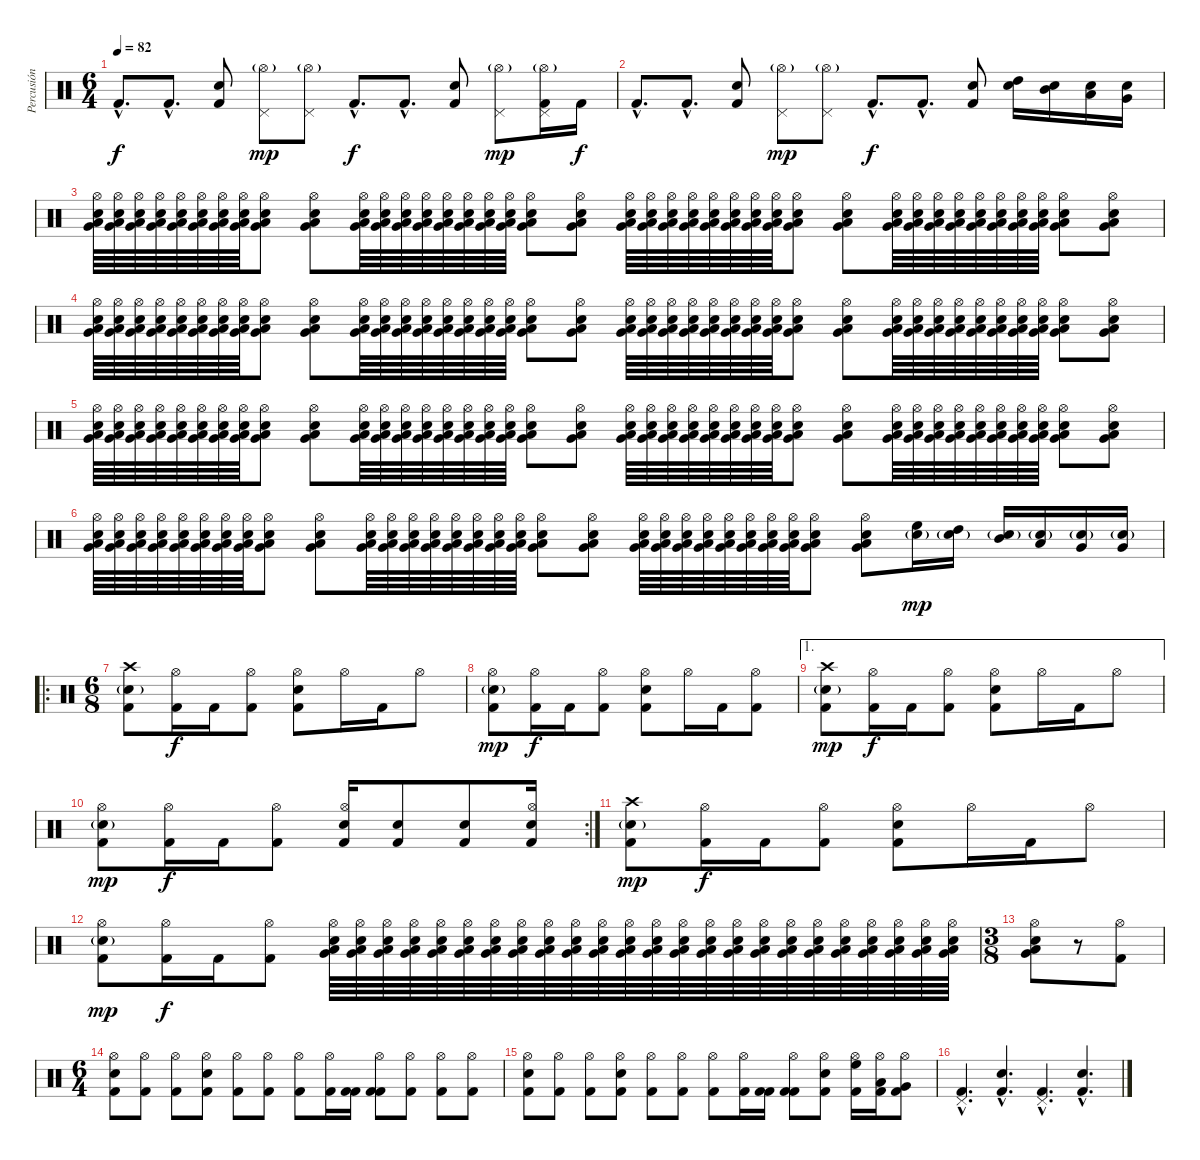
\track ("Percusión" "Percusión") {instrument percussion}
\staff {score}
\articulation defaults
\ts (6 4)
\tempo 82
\clef neutral
\ks c "Kick (hit) 2"{hac}.8{d dy f} "Kick (hit) 2"{hac}.8{d}
("Electric Snare (hit)" "Kick (hit) 2").8 ("Pedal Hi-Hat (hit)" "Hi-Hat (open)"{g}).8{dy mp} ("Pedal Hi-Hat (hit)" "Hi-Hat (open)"{g}).8 "Kick (hit) 2"{hac}.8{d dy f} "Kick (hit) 2"{hac}.8{d} ("Electric Snare (hit)" "Kick (hit) 2").8 ("Pedal Hi-Hat (hit)" "Hi-Hat (open)"{g}).8{dy mp} ("Pedal Hi-Hat (hit)" "Hi-Hat (open)"{g} "Kick (hit) 2").16 "Kick (hit) 2".16{dy f} |
"Kick (hit) 2"{hac}.8{d} "Kick (hit) 2"{hac}.8{d} ("Electric Snare (hit)" "Kick (hit) 2").8 ("Pedal Hi-Hat (hit)" "Hi-Hat (open)"{g}).8{dy mp} ("Pedal Hi-Hat (hit)" "Hi-Hat (open)"{g}).8 "Kick (hit) 2"{hac}.8{d dy f} "Kick (hit) 2"{hac}.8{d} ("Electric Snare (hit)" "Kick (hit) 2").8 ("High Tom (hit)" "Electric Snare (hit)").16 ("Mid Tom (hit)" "Electric Snare (hit)").16 ("Low Tom (hit)" "Electric Snare (hit)").16 ("Very Low Tom (hit)" "Electric Snare (hit)").16 |
("Low Tom (hit)" "Very Low Tom (hit)" "Snare (hit) 2" "Hi-Hat (open)").64{volume 8} ("Low Tom (hit)" "Very Low Tom (hit)" "Snare (hit) 2" "Hi-Hat (open)").64 ("Low Tom (hit)" "Very Low Tom (hit)" "Snare (hit) 2" "Hi-Hat (open)").64 ("Low Tom (hit)" "Very Low Tom (hit)" "Snare (hit) 2" "Hi-Hat (open)").64 ("Low Tom (hit)" "Very Low Tom (hit)" "Snare (hit) 2" "Hi-Hat (open)").64 ("Low Tom (hit)" "Very Low Tom (hit)" "Snare (hit) 2" "Hi-Hat (open)").64 ("Low Tom (hit)" "Very Low Tom (hit)" "Snare (hit) 2" "Hi-Hat (open)").64 ("Low Tom (hit)" "Very Low Tom (hit)" "Snare (hit) 2" "Hi-Hat (open)").64 ("Low Tom (hit)" "Very Low Tom (hit)" "Snare (hit) 2" "Hi-Hat (open)").8 ("Low Tom (hit)" "Very Low Tom (hit)" "Snare (hit) 2" "Hi-Hat (open)").8 ("Low Tom (hit)" "Very Low Tom (hit)" "Snare (hit) 2" "Hi-Hat (open)").64 ("Low Tom (hit)" "Very Low Tom (hit)" "Snare (hit) 2" "Hi-Hat (open)").64 ("Low Tom (hit)" "Very Low Tom (hit)" "Snare (hit) 2" "Hi-Hat (open)").64 ("Low Tom (hit)" "Very Low Tom (hit)" "Snare (hit) 2" "Hi-Hat (open)").64 ("Low Tom (hit)" "Very Low Tom (hit)" "Snare (hit) 2" "Hi-Hat (open)").64 ("Low Tom (hit)" "Very Low Tom (hit)" "Snare (hit) 2" "Hi-Hat (open)").64 ("Low Tom (hit)" "Very Low Tom (hit)" "Snare (hit) 2" "Hi-Hat (open)").64 ("Low Tom (hit)" "Very Low Tom (hit)" "Snare (hit) 2" "Hi-Hat (open)").64 ("Low Tom (hit)" "Very Low Tom (hit)" "Snare (hit) 2" "Hi-Hat (open)").8 ("Low Tom (hit)" "Very Low Tom (hit)" "Snare (hit) 2" "Hi-Hat (open)").8 ("Low Tom (hit)" "Very Low Tom (hit)" "Snare (hit) 2" "Hi-Hat (open)").64 ("Low Tom (hit)" "Very Low Tom (hit)" "Snare (hit) 2" "Hi-Hat (open)").64 ("Low Tom (hit)" "Very Low Tom (hit)" "Snare (hit) 2" "Hi-Hat (open)").64 ("Low Tom (hit)" "Very Low Tom (hit)" "Snare (hit) 2" "Hi-Hat (open)").64 ("Low Tom (hit)" "Very Low Tom (hit)" "Snare (hit) 2" "Hi-Hat (open)").64 ("Low Tom (hit)" "Very Low Tom (hit)" "Snare (hit) 2" "Hi-Hat (open)").64 ("Low Tom (hit)" "Very Low Tom (hit)" "Snare (hit) 2" "Hi-Hat (open)").64 ("Low Tom (hit)" "Very Low Tom (hit)" "Snare (hit) 2" "Hi-Hat (open)").64 ("Low Tom (hit)" "Very Low Tom (hit)" "Snare (hit) 2" "Hi-Hat (open)").8 ("Low Tom (hit)" "Very Low Tom (hit)" "Snare (hit) 2" "Hi-Hat (open)").8 ("Low Tom (hit)" "Very Low Tom (hit)" "Snare (hit) 2" "Hi-Hat (open)").64 ("Low Tom (hit)" "Very Low Tom (hit)" "Snare (hit) 2" "Hi-Hat (open)").64 ("Low Tom (hit)" "Very Low Tom (hit)" "Snare (hit) 2" "Hi-Hat (open)").64 ("Low Tom (hit)" "Very Low Tom (hit)" "Snare (hit) 2" "Hi-Hat (open)").64 ("Low Tom (hit)" "Very Low Tom (hit)" "Snare (hit) 2" "Hi-Hat (open)").64 ("Low Tom (hit)" "Very Low Tom (hit)" "Snare (hit) 2" "Hi-Hat (open)").64 ("Low Tom (hit)" "Very Low Tom (hit)" "Snare (hit) 2" "Hi-Hat (open)").64 ("Low Tom (hit)" "Very Low Tom (hit)" "Snare (hit) 2" "Hi-Hat (open)").64 ("Low Tom (hit)" "Very Low Tom (hit)" "Snare (hit) 2" "Hi-Hat (open)").8 ("Low Tom (hit)" "Very Low Tom (hit)" "Snare (hit) 2" "Hi-Hat (open)").8 |
("Low Tom (hit)" "Very Low Tom (hit)" "Snare (hit) 2" "Hi-Hat (open)").64 ("Low Tom (hit)" "Very Low Tom (hit)" "Snare (hit) 2" "Hi-Hat (open)").64 ("Low Tom (hit)" "Very Low Tom (hit)" "Snare (hit) 2" "Hi-Hat (open)").64 ("Low Tom (hit)" "Very Low Tom (hit)" "Snare (hit) 2" "Hi-Hat (open)").64 ("Low Tom (hit)" "Very Low Tom (hit)" "Snare (hit) 2" "Hi-Hat (open)").64 ("Low Tom (hit)" "Very Low Tom (hit)" "Snare (hit) 2" "Hi-Hat (open)").64 ("Low Tom (hit)" "Very Low Tom (hit)" "Snare (hit) 2" "Hi-Hat (open)").64 ("Low Tom (hit)" "Very Low Tom (hit)" "Snare (hit) 2" "Hi-Hat (open)").64 ("Low Tom (hit)" "Very Low Tom (hit)" "Snare (hit) 2" "Hi-Hat (open)").8 ("Low Tom (hit)" "Very Low Tom (hit)" "Snare (hit) 2" "Hi-Hat (open)").8 ("Low Tom (hit)" "Very Low Tom (hit)" "Snare (hit) 2" "Hi-Hat (open)").64 ("Low Tom (hit)" "Very Low Tom (hit)" "Snare (hit) 2" "Hi-Hat (open)").64 ("Low Tom (hit)" "Very Low Tom (hit)" "Snare (hit) 2" "Hi-Hat (open)").64 ("Low Tom (hit)" "Very Low Tom (hit)" "Snare (hit) 2" "Hi-Hat (open)").64 ("Low Tom (hit)" "Very Low Tom (hit)" "Snare (hit) 2" "Hi-Hat (open)").64 ("Low Tom (hit)" "Very Low Tom (hit)" "Snare (hit) 2" "Hi-Hat (open)").64 ("Low Tom (hit)" "Very Low Tom (hit)" "Snare (hit) 2" "Hi-Hat (open)").64 ("Low Tom (hit)" "Very Low Tom (hit)" "Snare (hit) 2" "Hi-Hat (open)").64 ("Low Tom (hit)" "Very Low Tom (hit)" "Snare (hit) 2" "Hi-Hat (open)").8 ("Low Tom (hit)" "Very Low Tom (hit)" "Snare (hit) 2" "Hi-Hat (open)").8 ("Low Tom (hit)" "Very Low Tom (hit)" "Snare (hit) 2" "Hi-Hat (open)").64 ("Low Tom (hit)" "Very Low Tom (hit)" "Snare (hit) 2" "Hi-Hat (open)").64 ("Low Tom (hit)" "Very Low Tom (hit)" "Snare (hit) 2" "Hi-Hat (open)").64 ("Low Tom (hit)" "Very Low Tom (hit)" "Snare (hit) 2" "Hi-Hat (open)").64 ("Low Tom (hit)" "Very Low Tom (hit)" "Snare (hit) 2" "Hi-Hat (open)").64 ("Low Tom (hit)" "Very Low Tom (hit)" "Snare (hit) 2" "Hi-Hat (open)").64 ("Low Tom (hit)" "Very Low Tom (hit)" "Snare (hit) 2" "Hi-Hat (open)").64 ("Low Tom (hit)" "Very Low Tom (hit)" "Snare (hit) 2" "Hi-Hat (open)").64 ("Low Tom (hit)" "Very Low Tom (hit)" "Snare (hit) 2" "Hi-Hat (open)").8 ("Low Tom (hit)" "Very Low Tom (hit)" "Snare (hit) 2" "Hi-Hat (open)").8 ("Low Tom (hit)" "Very Low Tom (hit)" "Snare (hit) 2" "Hi-Hat (open)").64 ("Low Tom (hit)" "Very Low Tom (hit)" "Snare (hit) 2" "Hi-Hat (open)").64 ("Low Tom (hit)" "Very Low Tom (hit)" "Snare (hit) 2" "Hi-Hat (open)").64 ("Low Tom (hit)" "Very Low Tom (hit)" "Snare (hit) 2" "Hi-Hat (open)").64 ("Low Tom (hit)" "Very Low Tom (hit)" "Snare (hit) 2" "Hi-Hat (open)").64 ("Low Tom (hit)" "Very Low Tom (hit)" "Snare (hit) 2" "Hi-Hat (open)").64 ("Low Tom (hit)" "Very Low Tom (hit)" "Snare (hit) 2" "Hi-Hat (open)").64 ("Low Tom (hit)" "Very Low Tom (hit)" "Snare (hit) 2" "Hi-Hat (open)").64 ("Low Tom (hit)" "Very Low Tom (hit)" "Snare (hit) 2" "Hi-Hat (open)").8 ("Low Tom (hit)" "Very Low Tom (hit)" "Snare (hit) 2" "Hi-Hat (open)").8 |
("Low Tom (hit)" "Very Low Tom (hit)" "Snare (hit) 2" "Hi-Hat (open)").64 ("Low Tom (hit)" "Very Low Tom (hit)" "Snare (hit) 2" "Hi-Hat (open)").64 ("Low Tom (hit)" "Very Low Tom (hit)" "Snare (hit) 2" "Hi-Hat (open)").64 ("Low Tom (hit)" "Very Low Tom (hit)" "Snare (hit) 2" "Hi-Hat (open)").64 ("Low Tom (hit)" "Very Low Tom (hit)" "Snare (hit) 2" "Hi-Hat (open)").64 ("Low Tom (hit)" "Very Low Tom (hit)" "Snare (hit) 2" "Hi-Hat (open)").64 ("Low Tom (hit)" "Very Low Tom (hit)" "Snare (hit) 2" "Hi-Hat (open)").64 ("Low Tom (hit)" "Very Low Tom (hit)" "Snare (hit) 2" "Hi-Hat (open)").64 ("Low Tom (hit)" "Very Low Tom (hit)" "Snare (hit) 2" "Hi-Hat (open)").8 ("Low Tom (hit)" "Very Low Tom (hit)" "Snare (hit) 2" "Hi-Hat (open)").8 ("Low Tom (hit)" "Very Low Tom (hit)" "Snare (hit) 2" "Hi-Hat (open)").64 ("Low Tom (hit)" "Very Low Tom (hit)" "Snare (hit) 2" "Hi-Hat (open)").64 ("Low Tom (hit)" "Very Low Tom (hit)" "Snare (hit) 2" "Hi-Hat (open)").64 ("Low Tom (hit)" "Very Low Tom (hit)" "Snare (hit) 2" "Hi-Hat (open)").64 ("Low Tom (hit)" "Very Low Tom (hit)" "Snare (hit) 2" "Hi-Hat (open)").64 ("Low Tom (hit)" "Very Low Tom (hit)" "Snare (hit) 2" "Hi-Hat (open)").64 ("Low Tom (hit)" "Very Low Tom (hit)" "Snare (hit) 2" "Hi-Hat (open)").64 ("Low Tom (hit)" "Very Low Tom (hit)" "Snare (hit) 2" "Hi-Hat (open)").64 ("Low Tom (hit)" "Very Low Tom (hit)" "Snare (hit) 2" "Hi-Hat (open)").8 ("Low Tom (hit)" "Very Low Tom (hit)" "Snare (hit) 2" "Hi-Hat (open)").8 ("Low Tom (hit)" "Very Low Tom (hit)" "Snare (hit) 2" "Hi-Hat (open)").64 ("Low Tom (hit)" "Very Low Tom (hit)" "Snare (hit) 2" "Hi-Hat (open)").64 ("Low Tom (hit)" "Very Low Tom (hit)" "Snare (hit) 2" "Hi-Hat (open)").64 ("Low Tom (hit)" "Very Low Tom (hit)" "Snare (hit) 2" "Hi-Hat (open)").64 ("Low Tom (hit)" "Very Low Tom (hit)" "Snare (hit) 2" "Hi-Hat (open)").64 ("Low Tom (hit)" "Very Low Tom (hit)" "Snare (hit) 2" "Hi-Hat (open)").64 ("Low Tom (hit)" "Very Low Tom (hit)" "Snare (hit) 2" "Hi-Hat (open)").64 ("Low Tom (hit)" "Very Low Tom (hit)" "Snare (hit) 2" "Hi-Hat (open)").64 ("Low Tom (hit)" "Very Low Tom (hit)" "Snare (hit) 2" "Hi-Hat (open)").8 ("Low Tom (hit)" "Very Low Tom (hit)" "Snare (hit) 2" "Hi-Hat (open)").8 ("Low Tom (hit)" "Very Low Tom (hit)" "Snare (hit) 2" "Hi-Hat (open)").64 ("Low Tom (hit)" "Very Low Tom (hit)" "Snare (hit) 2" "Hi-Hat (open)").64 ("Low Tom (hit)" "Very Low Tom (hit)" "Snare (hit) 2" "Hi-Hat (open)").64 ("Low Tom (hit)" "Very Low Tom (hit)" "Snare (hit) 2" "Hi-Hat (open)").64 ("Low Tom (hit)" "Very Low Tom (hit)" "Snare (hit) 2" "Hi-Hat (open)").64 ("Low Tom (hit)" "Very Low Tom (hit)" "Snare (hit) 2" "Hi-Hat (open)").64 ("Low Tom (hit)" "Very Low Tom (hit)" "Snare (hit) 2" "Hi-Hat (open)").64 ("Low Tom (hit)" "Very Low Tom (hit)" "Snare (hit) 2" "Hi-Hat (open)").64 ("Low Tom (hit)" "Very Low Tom (hit)" "Snare (hit) 2" "Hi-Hat (open)").8 ("Low Tom (hit)" "Very Low Tom (hit)" "Snare (hit) 2" "Hi-Hat (open)").8 |
("Low Tom (hit)" "Very Low Tom (hit)" "Snare (hit) 2" "Hi-Hat (open)").64 ("Low Tom (hit)" "Very Low Tom (hit)" "Snare (hit) 2" "Hi-Hat (open)").64 ("Low Tom (hit)" "Very Low Tom (hit)" "Snare (hit) 2" "Hi-Hat (open)").64 ("Low Tom (hit)" "Very Low Tom (hit)" "Snare (hit) 2" "Hi-Hat (open)").64 ("Low Tom (hit)" "Very Low Tom (hit)" "Snare (hit) 2" "Hi-Hat (open)").64 ("Low Tom (hit)" "Very Low Tom (hit)" "Snare (hit) 2" "Hi-Hat (open)").64 ("Low Tom (hit)" "Very Low Tom (hit)" "Snare (hit) 2" "Hi-Hat (open)").64 ("Low Tom (hit)" "Very Low Tom (hit)" "Snare (hit) 2" "Hi-Hat (open)").64 ("Low Tom (hit)" "Very Low Tom (hit)" "Snare (hit) 2" "Hi-Hat (open)").8 ("Low Tom (hit)" "Very Low Tom (hit)" "Snare (hit) 2" "Hi-Hat (open)").8 ("Low Tom (hit)" "Very Low Tom (hit)" "Snare (hit) 2" "Hi-Hat (open)").64 ("Low Tom (hit)" "Very Low Tom (hit)" "Snare (hit) 2" "Hi-Hat (open)").64 ("Low Tom (hit)" "Very Low Tom (hit)" "Snare (hit) 2" "Hi-Hat (open)").64 ("Low Tom (hit)" "Very Low Tom (hit)" "Snare (hit) 2" "Hi-Hat (open)").64 ("Low Tom (hit)" "Very Low Tom (hit)" "Snare (hit) 2" "Hi-Hat (open)").64 ("Low Tom (hit)" "Very Low Tom (hit)" "Snare (hit) 2" "Hi-Hat (open)").64 ("Low Tom (hit)" "Very Low Tom (hit)" "Snare (hit) 2" "Hi-Hat (open)").64 ("Low Tom (hit)" "Very Low Tom (hit)" "Snare (hit) 2" "Hi-Hat (open)").64 ("Low Tom (hit)" "Very Low Tom (hit)" "Snare (hit) 2" "Hi-Hat (open)").8 ("Low Tom (hit)" "Very Low Tom (hit)" "Snare (hit) 2" "Hi-Hat (open)").8 ("Low Tom (hit)" "Very Low Tom (hit)" "Snare (hit) 2" "Hi-Hat (open)").64 ("Low Tom (hit)" "Very Low Tom (hit)" "Snare (hit) 2" "Hi-Hat (open)").64 ("Low Tom (hit)" "Very Low Tom (hit)" "Snare (hit) 2" "Hi-Hat (open)").64 ("Low Tom (hit)" "Very Low Tom (hit)" "Snare (hit) 2" "Hi-Hat (open)").64 ("Low Tom (hit)" "Very Low Tom (hit)" "Snare (hit) 2" "Hi-Hat (open)").64 ("Low Tom (hit)" "Very Low Tom (hit)" "Snare (hit) 2" "Hi-Hat (open)").64 ("Low Tom (hit)" "Very Low Tom (hit)" "Snare (hit) 2" "Hi-Hat (open)").64 ("Low Tom (hit)" "Very Low Tom (hit)" "Snare (hit) 2" "Hi-Hat (open)").64 ("Low Tom (hit)" "Very Low Tom (hit)" "Snare (hit) 2" "Hi-Hat (open)").8 ("Low Tom (hit)" "Very Low Tom (hit)" "Snare (hit) 2" "Hi-Hat (open)").8 ("High Floor Tom (hit)" "Snare (hit) 2"{g}).16{dy mp volume 11} ("High Tom (hit)" "Snare (hit) 2"{g}).16 ("Mid Tom (hit)" "Snare (hit) 2"{g}).16 ("Low Tom (hit)" "Snare (hit) 2"{g}).16 ("Very Low Tom (hit)" "Snare (hit) 2"{g}).16 ("Very Low Tom (hit)" "Snare (hit) 2"{g}).16 |
\ro
\ts (6 8)
("Crash high (hit)" "Snare (hit) 2"{g} "Kick (hit) 2").8 ("Hi-Hat (open)" "Kick (hit) 2").16{dy f} "Kick (hit) 2".16 ("Hi-Hat (open)" "Kick (hit) 2").8 ("Hi-Hat (open)" "Electric Snare (hit)" "Kick (hit) 2").8 "Hi-Hat (open)".16 "Kick (hit) 2".16 "Hi-Hat (open)".8 |
("Hi-Hat (open)" "Snare (hit) 2"{g} "Kick (hit) 2").8{dy mp} ("Hi-Hat (open)" "Kick (hit) 2").16{dy f} "Kick (hit) 2".16 ("Hi-Hat (open)" "Kick (hit) 2").8 ("Hi-Hat (open)" "Electric Snare (hit)" "Kick (hit) 2").8 "Hi-Hat (open)".16 "Kick (hit) 2".16 ("Hi-Hat (open)" "Kick (hit) 2").8 |
\ae 1
("Crash high (hit)" "Snare (hit) 2"{g} "Kick (hit) 2").8{dy mp} ("Hi-Hat (open)" "Kick (hit) 2").16{dy f} "Kick (hit) 2".16 ("Hi-Hat (open)" "Kick (hit) 2").8 ("Hi-Hat (open)" "Electric Snare (hit)" "Kick (hit) 2").8 "Hi-Hat (open)".16 "Kick (hit) 2".16 "Hi-Hat (open)".8 |
\rc 2
("Hi-Hat (open)" "Snare (hit) 2"{g} "Kick (hit) 2").8{dy mp} ("Hi-Hat (open)" "Kick (hit) 2").16{dy f} "Kick (hit) 2".16 ("Hi-Hat (open)" "Kick (hit) 2").8 ("Hi-Hat (open)" "Snare (hit) 2" "Kick (hit) 2").16 ("Snare (hit) 2" "Kick (hit) 2").8 ("Snare (hit) 2" "Kick (hit) 2").8 ("Hi-Hat (open)" "Snare (hit) 2" "Kick (hit) 2").16 |
("Crash high (hit)" "Snare (hit) 2"{g} "Kick (hit) 2").8{dy mp} ("Hi-Hat (open)" "Kick (hit) 2").16{dy f} "Kick (hit) 2".16 ("Hi-Hat (open)" "Kick (hit) 2").8 ("Hi-Hat (open)" "Electric Snare (hit)" "Kick (hit) 2").8 "Hi-Hat (open)".16 "Kick (hit) 2".16 "Hi-Hat (open)".8 |
("Hi-Hat (open)" "Snare (hit) 2"{g} "Kick (hit) 2").8{dy mp} ("Hi-Hat (open)" "Kick (hit) 2").16{dy f} "Kick (hit) 2".16 ("Hi-Hat (open)" "Kick (hit) 2").8 ("Low Tom (hit)" "Very Low Tom (hit)" "Snare (hit) 2" "Hi-Hat (open)").64 ("Low Tom (hit)" "Very Low Tom (hit)" "Snare (hit) 2" "Hi-Hat (open)").64 ("Low Tom (hit)" "Very Low Tom (hit)" "Snare (hit) 2" "Hi-Hat (open)").64 ("Low Tom (hit)" "Very Low Tom (hit)" "Snare (hit) 2" "Hi-Hat (open)").64 ("Low Tom (hit)" "Very Low Tom (hit)" "Snare (hit) 2" "Hi-Hat (open)").64 ("Low Tom (hit)" "Very Low Tom (hit)" "Snare (hit) 2" "Hi-Hat (open)").64 ("Low Tom (hit)" "Very Low Tom (hit)" "Snare (hit) 2" "Hi-Hat (open)").64 ("Low Tom (hit)" "Very Low Tom (hit)" "Snare (hit) 2" "Hi-Hat (open)").64 ("Low Tom (hit)" "Very Low Tom (hit)" "Snare (hit) 2" "Hi-Hat (open)").64 ("Low Tom (hit)" "Very Low Tom (hit)" "Snare (hit) 2" "Hi-Hat (open)").64 ("Low Tom (hit)" "Very Low Tom (hit)" "Snare (hit) 2" "Hi-Hat (open)").64 ("Low Tom (hit)" "Very Low Tom (hit)" "Snare (hit) 2" "Hi-Hat (open)").64 ("Low Tom (hit)" "Very Low Tom (hit)" "Snare (hit) 2" "Hi-Hat (open)").64 ("Low Tom (hit)" "Very Low Tom (hit)" "Snare (hit) 2" "Hi-Hat (open)").64 ("Low Tom (hit)" "Very Low Tom (hit)" "Snare (hit) 2" "Hi-Hat (open)").64 ("Low Tom (hit)" "Very Low Tom (hit)" "Snare (hit) 2" "Hi-Hat (open)").64 ("Low Tom (hit)" "Very Low Tom (hit)" "Snare (hit) 2" "Hi-Hat (open)").64 ("Low Tom (hit)" "Very Low Tom (hit)" "Snare (hit) 2" "Hi-Hat (open)").64 ("Low Tom (hit)" "Very Low Tom (hit)" "Snare (hit) 2" "Hi-Hat (open)").64 ("Low Tom (hit)" "Very Low Tom (hit)" "Snare (hit) 2" "Hi-Hat (open)").64 ("Low Tom (hit)" "Very Low Tom (hit)" "Snare (hit) 2" "Hi-Hat (open)").64 ("Low Tom (hit)" "Very Low Tom (hit)" "Snare (hit) 2" "Hi-Hat (open)").64 ("Low Tom (hit)" "Very Low Tom (hit)" "Snare (hit) 2" "Hi-Hat (open)").64 ("Low Tom (hit)" "Very Low Tom (hit)" "Snare (hit) 2" "Hi-Hat (open)").64 |
\ts (3 8)
("Low Tom (hit)" "Very Low Tom (hit)" "Snare (hit) 2" "Hi-Hat (open)").8 r.8 ("Hi-Hat (open)" "Kick (hit) 2").8 |
\ts (6 4)
("Hi-Hat (open)" "Electric Snare (hit)" "Kick (hit) 2").8 ("Hi-Hat (open)" "Kick (hit) 2").8 ("Hi-Hat (open)" "Kick (hit) 2").8 ("Hi-Hat (open)" "Snare (hit) 2" "Kick (hit) 2").8 ("Hi-Hat (open)" "Kick (hit) 2").8 ("Hi-Hat (open)" "Kick (hit) 2").8 ("Hi-Hat (open)" "Kick (hit) 2").8 ("Hi-Hat (open)" "Kick (hit) 2").16 ("Kick (hit) 2" "Kick (hit) 2").16 ("Hi-Hat (open)" "Kick (hit) 2" "Kick (hit) 2").8 ("Hi-Hat (open)" "Kick (hit) 2").8 ("Hi-Hat (open)" "Kick (hit) 2").8 ("Hi-Hat (open)" "Kick (hit) 2").8 |
("Hi-Hat (open)" "Electric Snare (hit)" "Kick (hit) 2").8 ("Hi-Hat (open)" "Kick (hit) 2").8 ("Hi-Hat (open)" "Kick (hit) 2").8 ("Hi-Hat (open)" "Snare (hit) 2" "Kick (hit) 2").8 ("Hi-Hat (open)" "Kick (hit) 2").8 ("Hi-Hat (open)" "Kick (hit) 2").8 ("Hi-Hat (open)" "Kick (hit) 2").8 ("Hi-Hat (open)" "Kick (hit) 2").16 ("Kick (hit) 2" "Kick (hit) 2").16 ("Hi-Hat (open)" "Kick (hit) 2" "Kick (hit) 2").8 ("Hi-Hat (open)" "Snare (hit) 2" "Kick (hit) 2").8 ("Hi-Hat (open)" "High Floor Tom (hit)" "Kick (hit) 2").16 ("Hi-Hat (open)" "Low Tom (hit)" "Kick (hit) 2").16 ("Hi-Hat (open)" "Very Low Tom (hit)" "Kick (hit) 2").8 |
("Pedal Hi-Hat (hit)"{hac} "Kick (hit) 2"{hac}).4{d} ("Snare (hit) 2"{hac} "Kick (hit) 2"{hac}).4{d} ("Pedal Hi-Hat (hit)"{hac} "Kick (hit) 2"{hac}).4{d} ("Snare (hit) 2"{hac} "Kick (hit) 2"{hac}).4{d}
